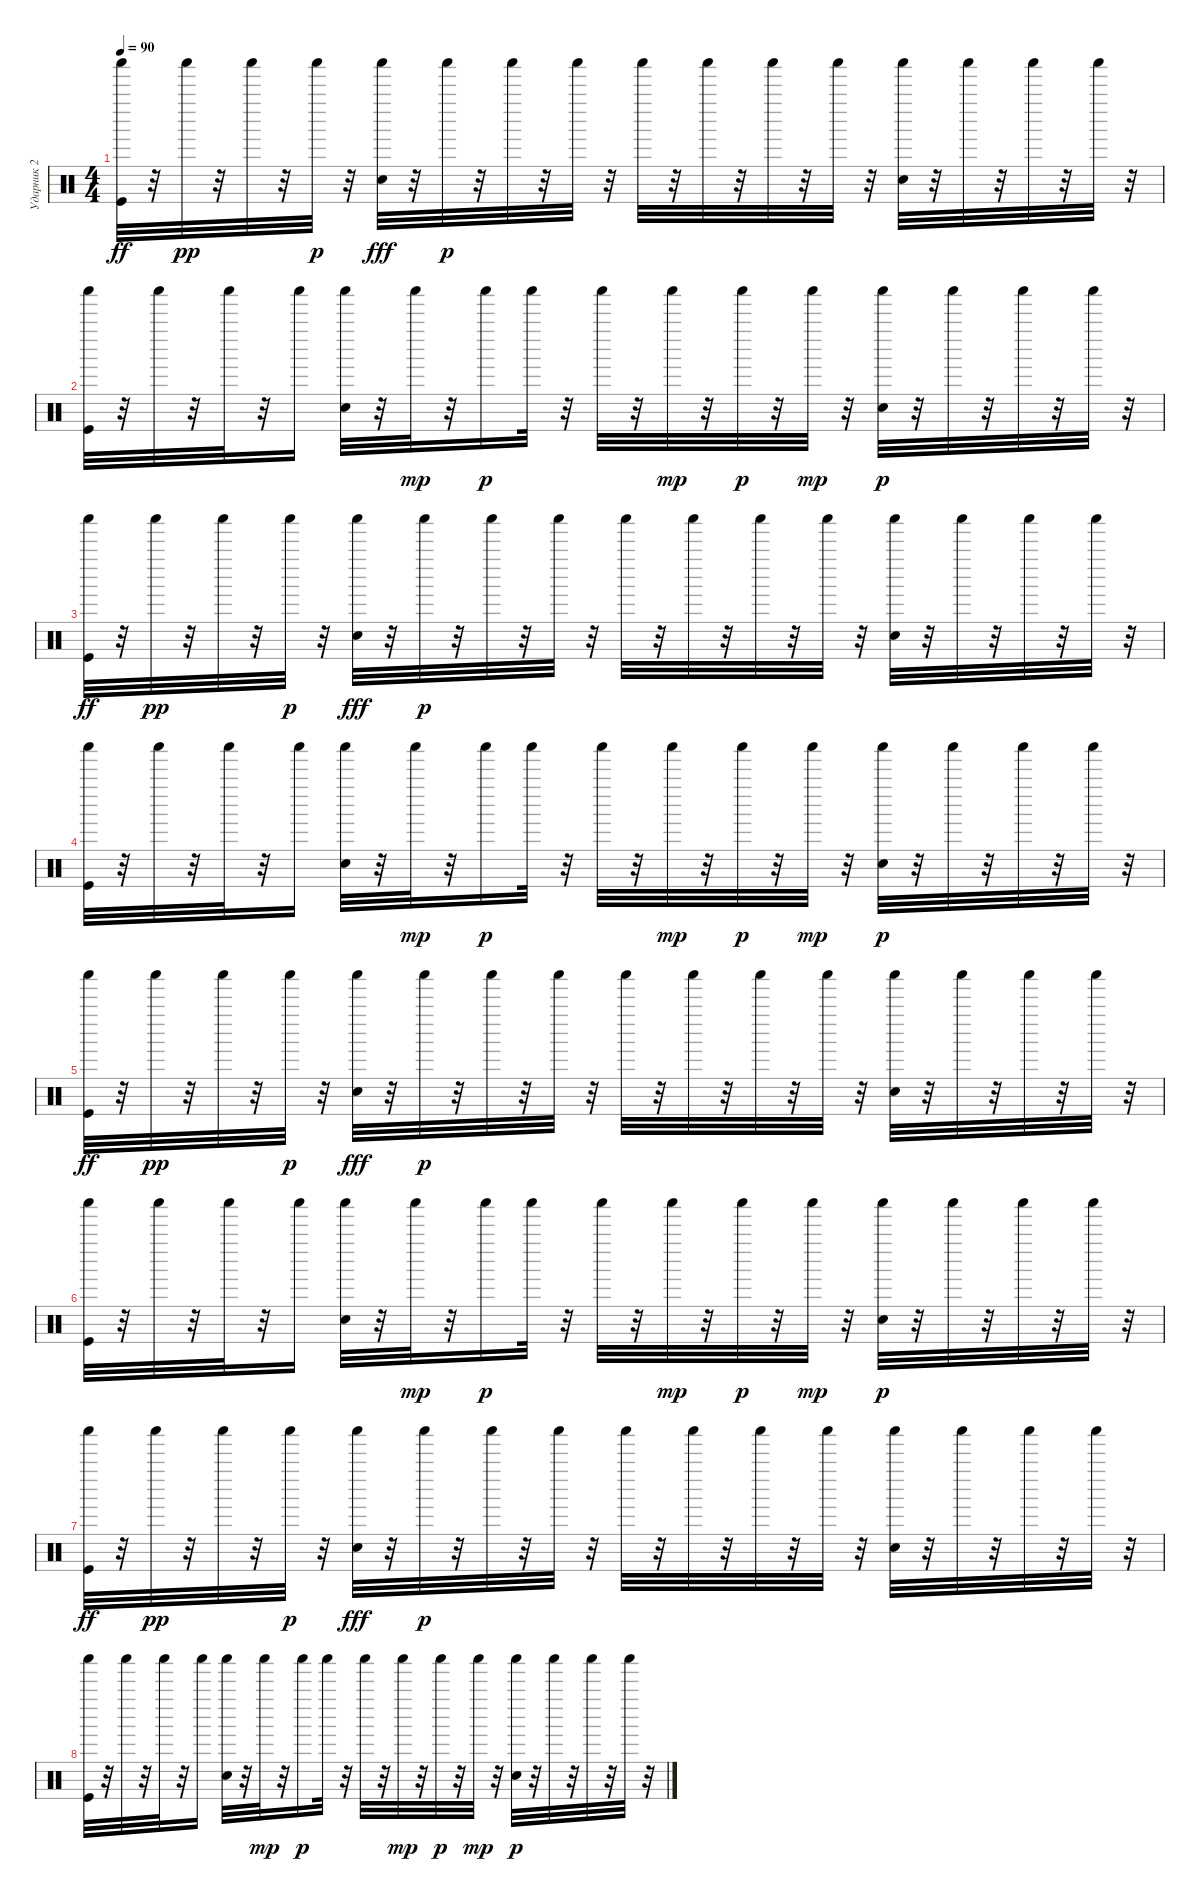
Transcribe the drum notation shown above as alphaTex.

\track ("Ударник 2" "Ударник 2") {instrument percussion}
\staff {score}
\articulation defaults
\ts (4 4)
\tempo 90
\clef neutral
\ks c
("Shaker (hit)" "Kick (hit)").32{dy ff} r.32 "Shaker (hit)".32{dy pp} r.32 "Shaker (hit)".32 r.32 "Shaker (hit)".32{dy p} r.32 ("Shaker (hit)" "Electric Snare (hit)").32{dy fff} r.32 "Shaker (hit)".32{dy p} r.32 "Shaker (hit)".32 r.32 "Shaker (hit)".32 r.32 "Shaker (hit)".32 r.32 "Shaker (hit)".32 r.32 "Shaker (hit)".32 r.32 "Shaker (hit)".32 r.32 ("Electric Snare (hit)" "Shaker (hit)").32 r.32 "Shaker (hit)".32 r.32 "Shaker (hit)".32 r.32 "Shaker (hit)".32 r.32 |
("Kick (hit)" "Shaker (hit)").32 r.32 "Shaker (hit)".32 r.32 "Shaker (hit)".32 r.32 "Shaker (hit)".16 ("Electric Snare (hit)" "Shaker (hit)").32 r.32 "Shaker (hit)".32{dy mp} r.32 "Shaker (hit)".16{dy p} "Shaker (hit)".32 r.32 "Shaker (hit)".32 r.32 "Shaker (hit)".32{dy mp} r.32 "Shaker (hit)".32{dy p} r.32 "Shaker (hit)".32{dy mp} r.32 ("Electric Snare (hit)" "Shaker (hit)").32{dy p} r.32 "Shaker (hit)".32 r.32 "Shaker (hit)".32 r.32 "Shaker (hit)".32 r.32 |
("Shaker (hit)" "Kick (hit)").32{dy ff} r.32 "Shaker (hit)".32{dy pp} r.32 "Shaker (hit)".32 r.32 "Shaker (hit)".32{dy p} r.32 ("Shaker (hit)" "Electric Snare (hit)").32{dy fff} r.32 "Shaker (hit)".32{dy p} r.32 "Shaker (hit)".32 r.32 "Shaker (hit)".32 r.32 "Shaker (hit)".32 r.32 "Shaker (hit)".32 r.32 "Shaker (hit)".32 r.32 "Shaker (hit)".32 r.32 ("Electric Snare (hit)" "Shaker (hit)").32 r.32 "Shaker (hit)".32 r.32 "Shaker (hit)".32 r.32 "Shaker (hit)".32 r.32 |
("Kick (hit)" "Shaker (hit)").32 r.32 "Shaker (hit)".32 r.32 "Shaker (hit)".32 r.32 "Shaker (hit)".16 ("Electric Snare (hit)" "Shaker (hit)").32 r.32 "Shaker (hit)".32{dy mp} r.32 "Shaker (hit)".16{dy p} "Shaker (hit)".32 r.32 "Shaker (hit)".32 r.32 "Shaker (hit)".32{dy mp} r.32 "Shaker (hit)".32{dy p} r.32 "Shaker (hit)".32{dy mp} r.32 ("Electric Snare (hit)" "Shaker (hit)").32{dy p} r.32 "Shaker (hit)".32 r.32 "Shaker (hit)".32 r.32 "Shaker (hit)".32 r.32 |
("Shaker (hit)" "Kick (hit)").32{dy ff} r.32 "Shaker (hit)".32{dy pp} r.32 "Shaker (hit)".32 r.32 "Shaker (hit)".32{dy p} r.32 ("Shaker (hit)" "Electric Snare (hit)").32{dy fff} r.32 "Shaker (hit)".32{dy p} r.32 "Shaker (hit)".32 r.32 "Shaker (hit)".32 r.32 "Shaker (hit)".32 r.32 "Shaker (hit)".32 r.32 "Shaker (hit)".32 r.32 "Shaker (hit)".32 r.32 ("Electric Snare (hit)" "Shaker (hit)").32 r.32 "Shaker (hit)".32 r.32 "Shaker (hit)".32 r.32 "Shaker (hit)".32 r.32 |
("Kick (hit)" "Shaker (hit)").32 r.32 "Shaker (hit)".32 r.32 "Shaker (hit)".32 r.32 "Shaker (hit)".16 ("Electric Snare (hit)" "Shaker (hit)").32 r.32 "Shaker (hit)".32{dy mp} r.32 "Shaker (hit)".16{dy p} "Shaker (hit)".32 r.32 "Shaker (hit)".32 r.32 "Shaker (hit)".32{dy mp} r.32 "Shaker (hit)".32{dy p} r.32 "Shaker (hit)".32{dy mp} r.32 ("Electric Snare (hit)" "Shaker (hit)").32{dy p} r.32 "Shaker (hit)".32 r.32 "Shaker (hit)".32 r.32 "Shaker (hit)".32 r.32 |
("Shaker (hit)" "Kick (hit)").32{dy ff} r.32 "Shaker (hit)".32{dy pp} r.32 "Shaker (hit)".32 r.32 "Shaker (hit)".32{dy p} r.32 ("Shaker (hit)" "Electric Snare (hit)").32{dy fff} r.32 "Shaker (hit)".32{dy p} r.32 "Shaker (hit)".32 r.32 "Shaker (hit)".32 r.32 "Shaker (hit)".32 r.32 "Shaker (hit)".32 r.32 "Shaker (hit)".32 r.32 "Shaker (hit)".32 r.32 ("Electric Snare (hit)" "Shaker (hit)").32 r.32 "Shaker (hit)".32 r.32 "Shaker (hit)".32 r.32 "Shaker (hit)".32 r.32 |
("Kick (hit)" "Shaker (hit)").32 r.32 "Shaker (hit)".32 r.32 "Shaker (hit)".32 r.32 "Shaker (hit)".16 ("Electric Snare (hit)" "Shaker (hit)").32 r.32 "Shaker (hit)".32{dy mp} r.32 "Shaker (hit)".16{dy p} "Shaker (hit)".32 r.32 "Shaker (hit)".32 r.32 "Shaker (hit)".32{dy mp} r.32 "Shaker (hit)".32{dy p} r.32 "Shaker (hit)".32{dy mp} r.32 ("Electric Snare (hit)" "Shaker (hit)").32{dy p} r.32 "Shaker (hit)".32 r.32 "Shaker (hit)".32 r.32 "Shaker (hit)".32 r.32
